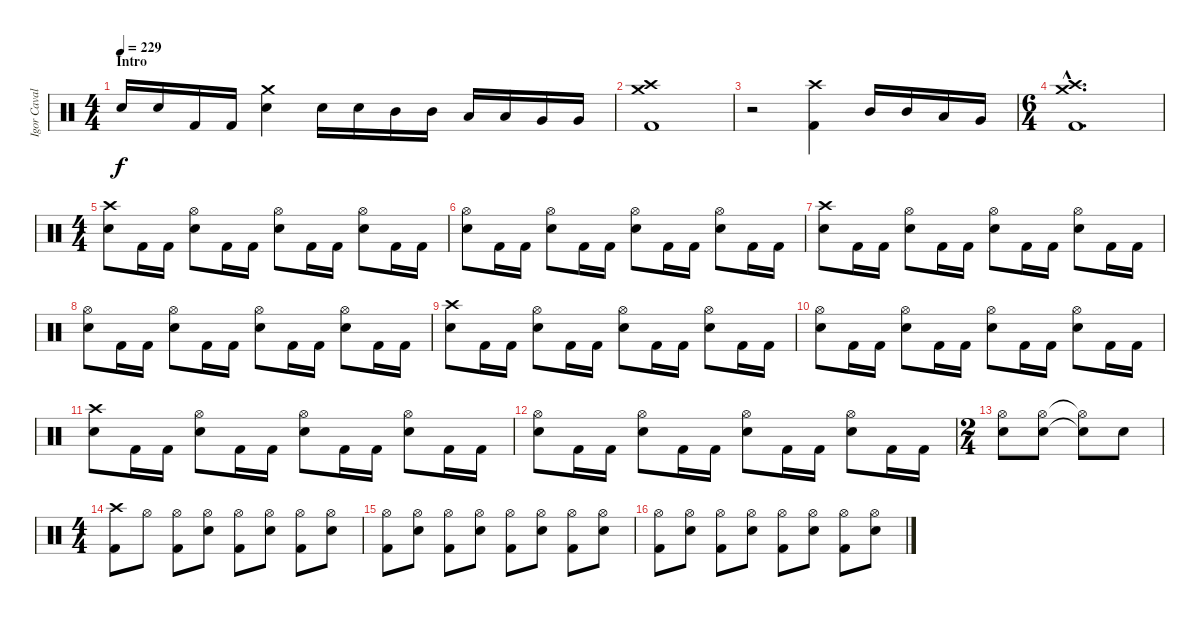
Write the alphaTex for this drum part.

\track ("Igor Cavalera" "Igor Caval") {instrument percussion}
\staff {score}
\articulation defaults
\ts (4 4)
\section ("" "Intro")
\tempo 229
\clef neutral
\ks c "Snare (hit) 2".16{dy f} "Snare (hit) 2".16 "Kick (hit) 2".16 "Kick (hit) 2".16
("Snare (hit) 2" "Crash medium (hit)").4 "Snare (hit) 2".16 "Snare (hit) 2".16 "Mid Tom (hit)".16 "Mid Tom (hit)".16 "Low Tom (hit)".16 "Low Tom (hit)".16 "Very Low Tom (hit)".16 "Very Low Tom (hit)".16 |
("Kick (hit) 2" "Crash medium (hit)" "Crash high (hit)").1 |
r.2 ("Kick (hit) 2" "Crash high (hit)").4 "Mid Tom (hit)".16 "Mid Tom (hit)".16 "Low Tom (hit)".16 "Very Low Tom (hit)".16 |
\ts (6 4)
("Kick (hit) 2"{hac} "Crash medium (hit)"{hac} "Crash high (hit)"{hac}).1{d} |
\ts (4 4)
("Snare (hit) 2" "Crash high (hit)").8 "Kick (hit) 2".16 "Kick (hit) 2".16 ("Snare (hit) 2" "Hi-Hat (open)").8 "Kick (hit) 2".16 "Kick (hit) 2".16 ("Snare (hit) 2" "Hi-Hat (open)").8 "Kick (hit) 2".16 "Kick (hit) 2".16 ("Snare (hit) 2" "Hi-Hat (open)").8 "Kick (hit) 2".16 "Kick (hit) 2".16 |
("Snare (hit) 2" "Hi-Hat (open)").8 "Kick (hit) 2".16 "Kick (hit) 2".16 ("Snare (hit) 2" "Hi-Hat (open)").8 "Kick (hit) 2".16 "Kick (hit) 2".16 ("Snare (hit) 2" "Hi-Hat (open)").8 "Kick (hit) 2".16 "Kick (hit) 2".16 ("Snare (hit) 2" "Hi-Hat (open)").8 "Kick (hit) 2".16 "Kick (hit) 2".16 |
("Snare (hit) 2" "Crash high (hit)").8 "Kick (hit) 2".16 "Kick (hit) 2".16 ("Snare (hit) 2" "Hi-Hat (open)").8 "Kick (hit) 2".16 "Kick (hit) 2".16 ("Snare (hit) 2" "Hi-Hat (open)").8 "Kick (hit) 2".16 "Kick (hit) 2".16 ("Snare (hit) 2" "Hi-Hat (open)").8 "Kick (hit) 2".16 "Kick (hit) 2".16 |
("Snare (hit) 2" "Hi-Hat (open)").8 "Kick (hit) 2".16 "Kick (hit) 2".16 ("Snare (hit) 2" "Hi-Hat (open)").8 "Kick (hit) 2".16 "Kick (hit) 2".16 ("Snare (hit) 2" "Hi-Hat (open)").8 "Kick (hit) 2".16 "Kick (hit) 2".16 ("Snare (hit) 2" "Hi-Hat (open)").8 "Kick (hit) 2".16 "Kick (hit) 2".16 |
("Snare (hit) 2" "Crash high (hit)").8 "Kick (hit) 2".16 "Kick (hit) 2".16 ("Snare (hit) 2" "Hi-Hat (open)").8 "Kick (hit) 2".16 "Kick (hit) 2".16 ("Snare (hit) 2" "Hi-Hat (open)").8 "Kick (hit) 2".16 "Kick (hit) 2".16 ("Snare (hit) 2" "Hi-Hat (open)").8 "Kick (hit) 2".16 "Kick (hit) 2".16 |
("Snare (hit) 2" "Hi-Hat (open)").8 "Kick (hit) 2".16 "Kick (hit) 2".16 ("Snare (hit) 2" "Hi-Hat (open)").8 "Kick (hit) 2".16 "Kick (hit) 2".16 ("Snare (hit) 2" "Hi-Hat (open)").8 "Kick (hit) 2".16 "Kick (hit) 2".16 ("Snare (hit) 2" "Hi-Hat (open)").8 "Kick (hit) 2".16 "Kick (hit) 2".16 |
("Snare (hit) 2" "Crash high (hit)").8 "Kick (hit) 2".16 "Kick (hit) 2".16 ("Snare (hit) 2" "Hi-Hat (open)").8 "Kick (hit) 2".16 "Kick (hit) 2".16 ("Snare (hit) 2" "Hi-Hat (open)").8 "Kick (hit) 2".16 "Kick (hit) 2".16 ("Snare (hit) 2" "Hi-Hat (open)").8 "Kick (hit) 2".16 "Kick (hit) 2".16 |
("Snare (hit) 2" "Hi-Hat (open)").8 "Kick (hit) 2".16 "Kick (hit) 2".16 ("Snare (hit) 2" "Hi-Hat (open)").8 "Kick (hit) 2".16 "Kick (hit) 2".16 ("Snare (hit) 2" "Hi-Hat (open)").8 "Kick (hit) 2".16 "Kick (hit) 2".16 ("Snare (hit) 2" "Hi-Hat (open)").8 "Kick (hit) 2".16 "Kick (hit) 2".16 |
\ts (2 4)
("Snare (hit) 2" "Hi-Hat (open)").8 ("Snare (hit) 2" "Hi-Hat (open)").8 ("Snare (hit) 2"{t} "Hi-Hat (open)"{t}).8 "Snare (hit) 2".8 |
\ts (4 4)
("Kick (hit) 2" "Crash high (hit)").8 "Hi-Hat (open)".8 ("Kick (hit) 2" "Hi-Hat (open)").8 ("Snare (hit) 2" "Hi-Hat (open)").8 ("Kick (hit) 2" "Hi-Hat (open)").8 ("Snare (hit) 2" "Hi-Hat (open)").8 ("Kick (hit) 2" "Hi-Hat (open)").8 ("Snare (hit) 2" "Hi-Hat (open)").8 |
("Kick (hit) 2" "Hi-Hat (open)").8 ("Snare (hit) 2" "Hi-Hat (open)").8 ("Kick (hit) 2" "Hi-Hat (open)").8 ("Snare (hit) 2" "Hi-Hat (open)").8 ("Kick (hit) 2" "Hi-Hat (open)").8 ("Snare (hit) 2" "Hi-Hat (open)").8 ("Kick (hit) 2" "Hi-Hat (open)").8 ("Snare (hit) 2" "Hi-Hat (open)").8 |
("Kick (hit) 2" "Hi-Hat (open)").8 ("Snare (hit) 2" "Hi-Hat (open)").8 ("Kick (hit) 2" "Hi-Hat (open)").8 ("Snare (hit) 2" "Hi-Hat (open)").8 ("Kick (hit) 2" "Hi-Hat (open)").8 ("Snare (hit) 2" "Hi-Hat (open)").8 ("Kick (hit) 2" "Hi-Hat (open)").8 ("Snare (hit) 2" "Hi-Hat (open)").8
